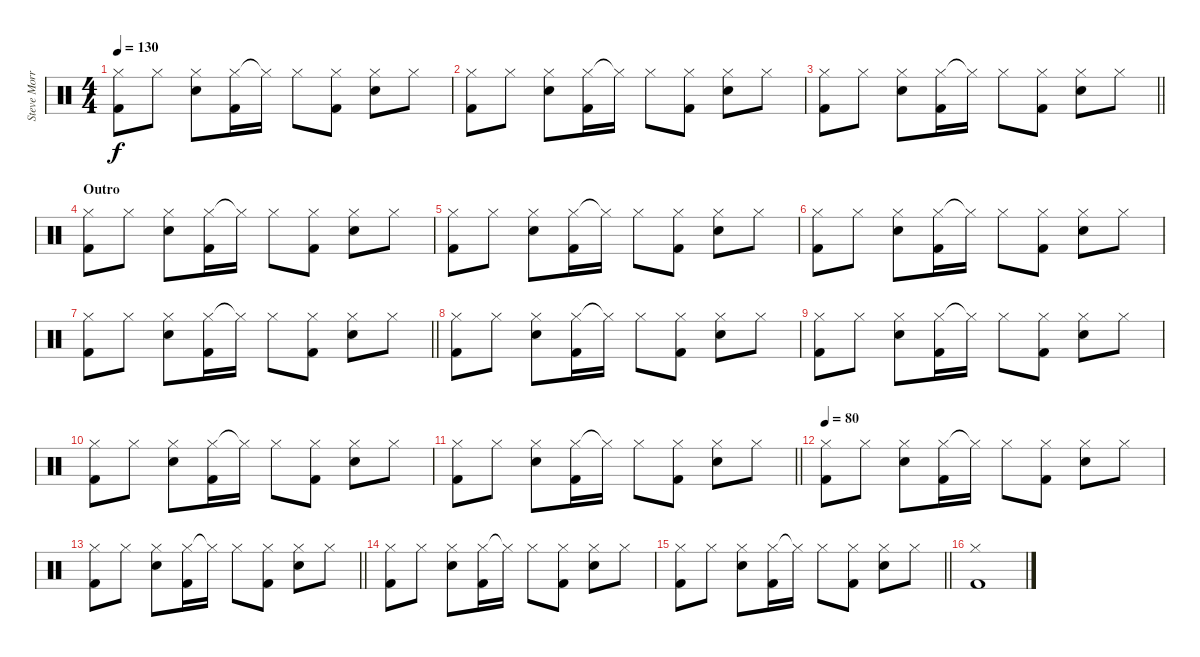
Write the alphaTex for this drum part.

\track ("Steve Morris" "Steve Morr") {instrument percussion}
\staff {score}
\articulation defaults
\ts (4 4)
\tempo 130
\clef neutral
\ks c
("Hi-Hat (closed)" "Kick (hit) 2").8{dy f} "Hi-Hat (closed)".8 ("Hi-Hat (closed)" "Electric Snare (hit)").8 ("Hi-Hat (closed)" "Kick (hit) 2").16 "Hi-Hat (closed)"{t}.16 "Hi-Hat (closed)".8 ("Hi-Hat (closed)" "Kick (hit) 2").8 ("Hi-Hat (closed)" "Electric Snare (hit)").8 "Hi-Hat (closed)".8 |
("Hi-Hat (closed)" "Kick (hit) 2").8 "Hi-Hat (closed)".8 ("Hi-Hat (closed)" "Electric Snare (hit)").8 ("Hi-Hat (closed)" "Kick (hit) 2").16 "Hi-Hat (closed)"{t}.16 "Hi-Hat (closed)".8 ("Hi-Hat (closed)" "Kick (hit) 2").8 ("Hi-Hat (closed)" "Electric Snare (hit)").8 "Hi-Hat (closed)".8 |
\barLineRight lightlight
("Hi-Hat (closed)" "Kick (hit) 2").8 "Hi-Hat (closed)".8 ("Hi-Hat (closed)" "Electric Snare (hit)").8 ("Hi-Hat (closed)" "Kick (hit) 2").16 "Hi-Hat (closed)"{t}.16 "Hi-Hat (closed)".8 ("Hi-Hat (closed)" "Kick (hit) 2").8 ("Hi-Hat (closed)" "Electric Snare (hit)").8 "Hi-Hat (closed)".8 |
\section ("" "Outro")
("Hi-Hat (closed)" "Kick (hit) 2").8 "Hi-Hat (closed)".8 ("Hi-Hat (closed)" "Electric Snare (hit)").8 ("Hi-Hat (closed)" "Kick (hit) 2").16 "Hi-Hat (closed)"{t}.16 "Hi-Hat (closed)".8 ("Hi-Hat (closed)" "Kick (hit) 2").8 ("Hi-Hat (closed)" "Electric Snare (hit)").8 "Hi-Hat (closed)".8 |
("Hi-Hat (closed)" "Kick (hit) 2").8 "Hi-Hat (closed)".8 ("Hi-Hat (closed)" "Electric Snare (hit)").8 ("Hi-Hat (closed)" "Kick (hit) 2").16 "Hi-Hat (closed)"{t}.16 "Hi-Hat (closed)".8 ("Hi-Hat (closed)" "Kick (hit) 2").8 ("Hi-Hat (closed)" "Electric Snare (hit)").8 "Hi-Hat (closed)".8 |
("Hi-Hat (closed)" "Kick (hit) 2").8 "Hi-Hat (closed)".8 ("Hi-Hat (closed)" "Electric Snare (hit)").8 ("Hi-Hat (closed)" "Kick (hit) 2").16 "Hi-Hat (closed)"{t}.16 "Hi-Hat (closed)".8 ("Hi-Hat (closed)" "Kick (hit) 2").8 ("Hi-Hat (closed)" "Electric Snare (hit)").8 "Hi-Hat (closed)".8 |
\barLineRight lightlight
("Hi-Hat (closed)" "Kick (hit) 2").8 "Hi-Hat (closed)".8 ("Hi-Hat (closed)" "Electric Snare (hit)").8 ("Hi-Hat (closed)" "Kick (hit) 2").16 "Hi-Hat (closed)"{t}.16 "Hi-Hat (closed)".8 ("Hi-Hat (closed)" "Kick (hit) 2").8 ("Hi-Hat (closed)" "Electric Snare (hit)").8 "Hi-Hat (closed)".8 |
("Hi-Hat (closed)" "Kick (hit) 2").8 "Hi-Hat (closed)".8 ("Hi-Hat (closed)" "Electric Snare (hit)").8 ("Hi-Hat (closed)" "Kick (hit) 2").16 "Hi-Hat (closed)"{t}.16 "Hi-Hat (closed)".8 ("Hi-Hat (closed)" "Kick (hit) 2").8 ("Hi-Hat (closed)" "Electric Snare (hit)").8 "Hi-Hat (closed)".8 |
("Hi-Hat (closed)" "Kick (hit) 2").8 "Hi-Hat (closed)".8 ("Hi-Hat (closed)" "Electric Snare (hit)").8 ("Hi-Hat (closed)" "Kick (hit) 2").16 "Hi-Hat (closed)"{t}.16 "Hi-Hat (closed)".8 ("Hi-Hat (closed)" "Kick (hit) 2").8 ("Hi-Hat (closed)" "Electric Snare (hit)").8 "Hi-Hat (closed)".8 |
("Hi-Hat (closed)" "Kick (hit) 2").8 "Hi-Hat (closed)".8 ("Hi-Hat (closed)" "Electric Snare (hit)").8 ("Hi-Hat (closed)" "Kick (hit) 2").16 "Hi-Hat (closed)"{t}.16 "Hi-Hat (closed)".8 ("Hi-Hat (closed)" "Kick (hit) 2").8 ("Hi-Hat (closed)" "Electric Snare (hit)").8 "Hi-Hat (closed)".8 |
\barLineRight lightlight
("Hi-Hat (closed)" "Kick (hit) 2").8 "Hi-Hat (closed)".8 ("Hi-Hat (closed)" "Electric Snare (hit)").8 ("Hi-Hat (closed)" "Kick (hit) 2").16 "Hi-Hat (closed)"{t}.16 "Hi-Hat (closed)".8 ("Hi-Hat (closed)" "Kick (hit) 2").8 ("Hi-Hat (closed)" "Electric Snare (hit)").8 "Hi-Hat (closed)".8 |
\tempo 80
("Hi-Hat (closed)" "Kick (hit) 2").8 "Hi-Hat (closed)".8 ("Hi-Hat (closed)" "Electric Snare (hit)").8 ("Hi-Hat (closed)" "Kick (hit) 2").16 "Hi-Hat (closed)"{t}.16 "Hi-Hat (closed)".8 ("Hi-Hat (closed)" "Kick (hit) 2").8 ("Hi-Hat (closed)" "Electric Snare (hit)").8 "Hi-Hat (closed)".8 |
\barLineRight lightlight
("Hi-Hat (closed)" "Kick (hit) 2").8 "Hi-Hat (closed)".8 ("Hi-Hat (closed)" "Electric Snare (hit)").8 ("Hi-Hat (closed)" "Kick (hit) 2").16 "Hi-Hat (closed)"{t}.16 "Hi-Hat (closed)".8 ("Hi-Hat (closed)" "Kick (hit) 2").8 ("Hi-Hat (closed)" "Electric Snare (hit)").8 "Hi-Hat (closed)".8 |
("Hi-Hat (closed)" "Kick (hit) 2").8 "Hi-Hat (closed)".8 ("Hi-Hat (closed)" "Electric Snare (hit)").8 ("Hi-Hat (closed)" "Kick (hit) 2").16 "Hi-Hat (closed)"{t}.16 "Hi-Hat (closed)".8 ("Hi-Hat (closed)" "Kick (hit) 2").8 ("Hi-Hat (closed)" "Electric Snare (hit)").8 "Hi-Hat (closed)".8 |
\barLineRight lightlight
("Hi-Hat (closed)" "Kick (hit) 2").8 "Hi-Hat (closed)".8 ("Hi-Hat (closed)" "Electric Snare (hit)").8 ("Hi-Hat (closed)" "Kick (hit) 2").16 "Hi-Hat (closed)"{t}.16 "Hi-Hat (closed)".8 ("Hi-Hat (closed)" "Kick (hit) 2").8 ("Hi-Hat (closed)" "Electric Snare (hit)").8 "Hi-Hat (closed)".8 |
("Hi-Hat (closed)" "Kick (hit) 2").1
